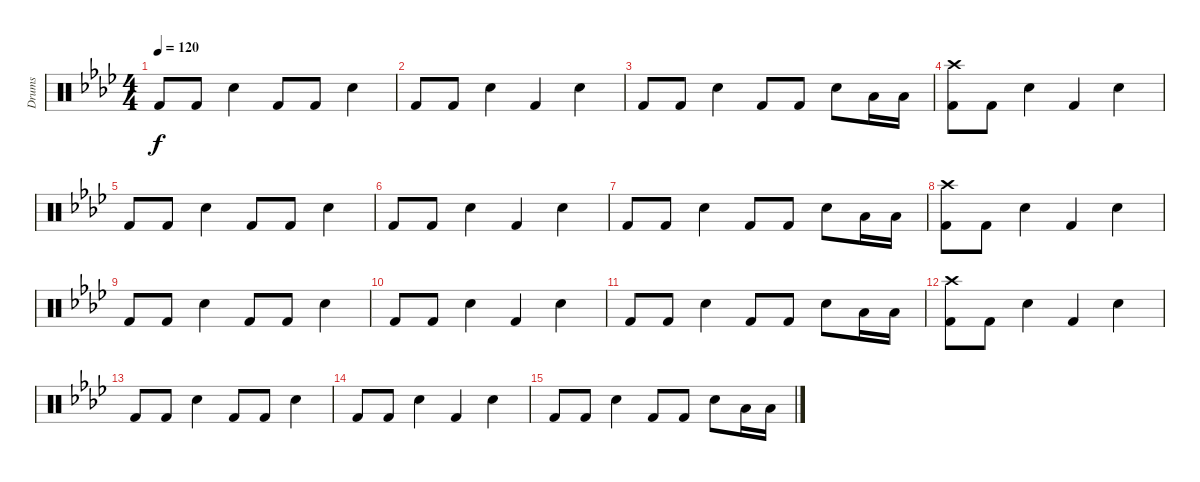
\track ("Drums" "Drums") {instrument percussion}
\staff {score}
\articulation defaults
\ts (4 4)
\tempo 120
\clef neutral
\ks ab "Kick (hit) 2".8{dy f} "Kick (hit) 2".8 "Electric Snare (hit)".4 "Kick (hit) 2".8 "Kick (hit) 2".8 "Electric Snare (hit)".4
|
"Kick (hit) 2".8 "Kick (hit) 2".8 "Electric Snare (hit)".4 "Kick (hit) 2".4 "Electric Snare (hit)".4 |
"Kick (hit) 2".8 "Kick (hit) 2".8 "Electric Snare (hit)".4 "Kick (hit) 2".8 "Kick (hit) 2".8 "Electric Snare (hit)".8 "Low Tom (hit)".16 "Low Tom (hit)".16 |
("Crash high (hit)" "Kick (hit) 2").8 "Kick (hit) 2".8 "Electric Snare (hit)".4 "Kick (hit) 2".4 "Electric Snare (hit)".4 |
"Kick (hit) 2".8 "Kick (hit) 2".8 "Electric Snare (hit)".4 "Kick (hit) 2".8 "Kick (hit) 2".8 "Electric Snare (hit)".4 |
"Kick (hit) 2".8 "Kick (hit) 2".8 "Electric Snare (hit)".4 "Kick (hit) 2".4 "Electric Snare (hit)".4 |
"Kick (hit) 2".8 "Kick (hit) 2".8 "Electric Snare (hit)".4 "Kick (hit) 2".8 "Kick (hit) 2".8 "Electric Snare (hit)".8 "Low Tom (hit)".16 "Low Tom (hit)".16 |
("Crash high (hit)" "Kick (hit) 2").8 "Kick (hit) 2".8 "Electric Snare (hit)".4 "Kick (hit) 2".4 "Electric Snare (hit)".4 |
"Kick (hit) 2".8 "Kick (hit) 2".8 "Electric Snare (hit)".4 "Kick (hit) 2".8 "Kick (hit) 2".8 "Electric Snare (hit)".4 |
"Kick (hit) 2".8 "Kick (hit) 2".8 "Electric Snare (hit)".4 "Kick (hit) 2".4 "Electric Snare (hit)".4 |
"Kick (hit) 2".8 "Kick (hit) 2".8 "Electric Snare (hit)".4 "Kick (hit) 2".8 "Kick (hit) 2".8 "Electric Snare (hit)".8 "Low Tom (hit)".16 "Low Tom (hit)".16 |
("Crash high (hit)" "Kick (hit) 2").8 "Kick (hit) 2".8 "Electric Snare (hit)".4 "Kick (hit) 2".4 "Electric Snare (hit)".4 |
"Kick (hit) 2".8 "Kick (hit) 2".8 "Electric Snare (hit)".4 "Kick (hit) 2".8 "Kick (hit) 2".8 "Electric Snare (hit)".4 |
"Kick (hit) 2".8 "Kick (hit) 2".8 "Electric Snare (hit)".4 "Kick (hit) 2".4 "Electric Snare (hit)".4 |
"Kick (hit) 2".8 "Kick (hit) 2".8 "Electric Snare (hit)".4 "Kick (hit) 2".8 "Kick (hit) 2".8 "Electric Snare (hit)".8 "Low Tom (hit)".16 "Low Tom (hit)".16
